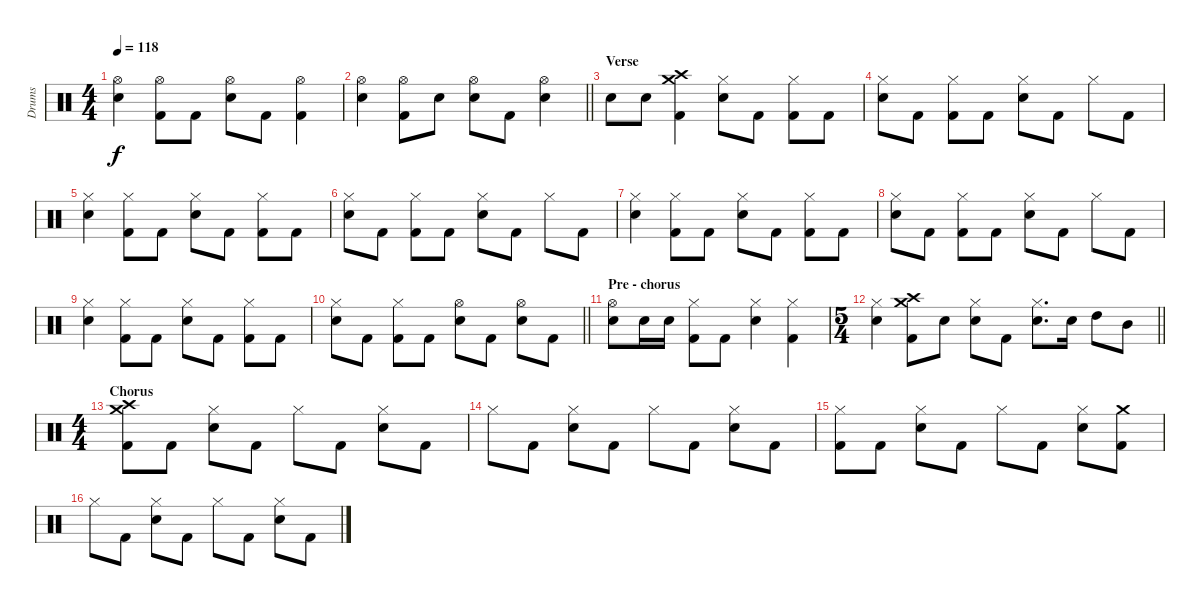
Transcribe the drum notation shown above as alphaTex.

\track ("Drums" "Drums") {instrument percussion}
\staff {score}
\articulation defaults
\ts (4 4)
\tempo 118
\clef neutral
\ks c
("Hi-Hat (open)" "Snare (hit) 2").4{dy f} ("Hi-Hat (open)" "Kick (hit) 2").8 "Kick (hit) 2".8 ("Hi-Hat (open)" "Snare (hit) 2").8 "Kick (hit) 2".8 ("Hi-Hat (open)" "Kick (hit) 2").4 |
\barLineRight lightlight
("Hi-Hat (open)" "Snare (hit) 2").4 ("Hi-Hat (open)" "Kick (hit) 2").8 "Snare (hit) 2".8 ("Hi-Hat (open)" "Snare (hit) 2").8 "Kick (hit) 2".8 ("Hi-Hat (open)" "Snare (hit) 2").4 |
\section ("" "Verse")
"Snare (hit) 2".8 "Snare (hit) 2".8 ("Crash medium (hit)" "Crash high (hit)" "Kick (hit) 2").4 ("Hi-Hat (closed)" "Snare (hit) 2").8 "Kick (hit) 2".8 ("Hi-Hat (closed)" "Kick (hit) 2").8 "Kick (hit) 2".8 |
("Hi-Hat (closed)" "Snare (hit) 2").8 "Kick (hit) 2".8 ("Hi-Hat (closed)" "Kick (hit) 2").8 "Kick (hit) 2".8 ("Hi-Hat (closed)" "Snare (hit) 2").8 "Kick (hit) 2".8 "Hi-Hat (closed)".8 "Kick (hit) 2".8 |
("Hi-Hat (closed)" "Snare (hit) 2").4 ("Hi-Hat (closed)" "Kick (hit) 2").8 "Kick (hit) 2".8 ("Hi-Hat (closed)" "Snare (hit) 2").8 "Kick (hit) 2".8 ("Hi-Hat (closed)" "Kick (hit) 2").8 "Kick (hit) 2".8 |
("Hi-Hat (closed)" "Snare (hit) 2").8 "Kick (hit) 2".8 ("Hi-Hat (closed)" "Kick (hit) 2").8 "Kick (hit) 2".8 ("Hi-Hat (closed)" "Snare (hit) 2").8 "Kick (hit) 2".8 "Hi-Hat (closed)".8 "Kick (hit) 2".8 |
("Hi-Hat (closed)" "Snare (hit) 2").4 ("Hi-Hat (closed)" "Kick (hit) 2").8 "Kick (hit) 2".8 ("Hi-Hat (closed)" "Snare (hit) 2").8 "Kick (hit) 2".8 ("Hi-Hat (closed)" "Kick (hit) 2").8 "Kick (hit) 2".8 |
("Hi-Hat (closed)" "Snare (hit) 2").8 "Kick (hit) 2".8 ("Hi-Hat (closed)" "Kick (hit) 2").8 "Kick (hit) 2".8 ("Hi-Hat (closed)" "Snare (hit) 2").8 "Kick (hit) 2".8 "Hi-Hat (closed)".8 "Kick (hit) 2".8 |
("Hi-Hat (closed)" "Snare (hit) 2").4 ("Hi-Hat (closed)" "Kick (hit) 2").8 "Kick (hit) 2".8 ("Hi-Hat (closed)" "Snare (hit) 2").8 "Kick (hit) 2".8 ("Hi-Hat (closed)" "Kick (hit) 2").8 "Kick (hit) 2".8 |
\barLineRight lightlight
("Hi-Hat (closed)" "Snare (hit) 2").8 "Kick (hit) 2".8 ("Hi-Hat (closed)" "Kick (hit) 2").8 "Kick (hit) 2".8 ("Hi-Hat (open)" "Snare (hit) 2").8 "Kick (hit) 2".8 ("Hi-Hat (open)" "Snare (hit) 2").8 "Kick (hit) 2".8 |
\section ("" "Pre - chorus")
("Hi-Hat (open)" "Snare (hit) 2").8 "Snare (hit) 2".16 "Snare (hit) 2".16 ("Hi-Hat (closed)" "Kick (hit) 2").8 "Kick (hit) 2".8 ("Hi-Hat (closed)" "Snare (hit) 2").4 ("Hi-Hat (closed)" "Kick (hit) 2").4 |
\ts (5 4)
\barLineRight lightlight
("Hi-Hat (closed)" "Snare (hit) 2").4 ("Crash medium (hit)" "Crash high (hit)" "Kick (hit) 2").8 "Snare (hit) 2".8 ("Hi-Hat (closed)" "Snare (hit) 2").8 "Kick (hit) 2".8 ("Hi-Hat (closed)" "Snare (hit) 2").8{d} "Snare (hit) 2".16 "High Tom (hit)".8 "Mid Tom (hit)".8 |
\ts (4 4)
\section ("" "Chorus")
("Crash medium (hit)" "Crash high (hit)" "Kick (hit) 2").8 "Kick (hit) 2".8 ("Hi-Hat (closed)" "Snare (hit) 2").8 "Kick (hit) 2".8 "Hi-Hat (closed)".8 "Kick (hit) 2".8 ("Hi-Hat (closed)" "Snare (hit) 2").8 "Kick (hit) 2".8 |
"Hi-Hat (closed)".8 "Kick (hit) 2".8 ("Hi-Hat (closed)" "Snare (hit) 2").8 "Kick (hit) 2".8 "Hi-Hat (closed)".8 "Kick (hit) 2".8 ("Hi-Hat (closed)" "Snare (hit) 2").8 "Kick (hit) 2".8 |
("Hi-Hat (closed)" "Kick (hit) 2").8 "Kick (hit) 2".8 ("Hi-Hat (closed)" "Snare (hit) 2").8 "Kick (hit) 2".8 "Hi-Hat (closed)".8 "Kick (hit) 2".8 ("Hi-Hat (closed)" "Snare (hit) 2").8 ("Crash medium (hit)" "Kick (hit) 2").8 |
"Hi-Hat (closed)".8 "Kick (hit) 2".8 ("Hi-Hat (closed)" "Snare (hit) 2").8 "Kick (hit) 2".8 "Hi-Hat (closed)".8 "Kick (hit) 2".8 ("Hi-Hat (closed)" "Snare (hit) 2").8 "Kick (hit) 2".8
